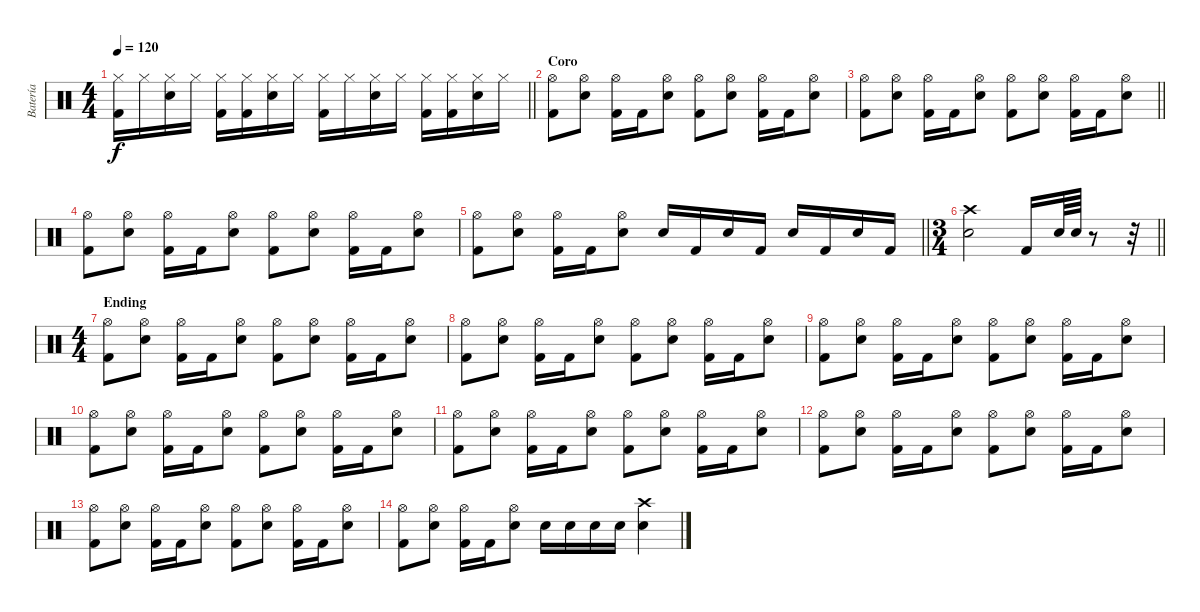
\track ("Batería" "Batería") {instrument percussion}
\staff {score}
\articulation defaults
\ts (4 4)
\tempo 120
\clef neutral
\barLineRight lightlight
\ks c
("Hi-Hat (closed)" "Kick (hit) 2").16{dy f} "Hi-Hat (closed)".16 ("Hi-Hat (closed)" "Snare (hit) 2").16 "Hi-Hat (closed)".16 ("Hi-Hat (closed)" "Kick (hit) 2").16 ("Hi-Hat (closed)" "Kick (hit) 2").16 ("Hi-Hat (closed)" "Snare (hit) 2").16 "Hi-Hat (closed)".16 ("Hi-Hat (closed)" "Kick (hit) 2").16 "Hi-Hat (closed)".16 ("Hi-Hat (closed)" "Snare (hit) 2").16 "Hi-Hat (closed)".16 ("Hi-Hat (closed)" "Kick (hit) 2").16 ("Hi-Hat (closed)" "Kick (hit) 2").16 ("Hi-Hat (closed)" "Snare (hit) 2").16 "Hi-Hat (closed)".16 |
\section ("" "Coro")
("Hi-Hat (open)" "Kick (hit) 2").8 ("Hi-Hat (open)" "Snare (hit) 2").8 ("Hi-Hat (open)" "Kick (hit) 2").16 "Kick (hit) 2".16 ("Hi-Hat (open)" "Snare (hit) 2").8 ("Hi-Hat (open)" "Kick (hit) 2").8 ("Hi-Hat (open)" "Snare (hit) 2").8 ("Hi-Hat (open)" "Kick (hit) 2").16 "Kick (hit) 2".16 ("Hi-Hat (open)" "Snare (hit) 2").8 |
\barLineRight lightlight
("Hi-Hat (open)" "Kick (hit) 2").8 ("Hi-Hat (open)" "Snare (hit) 2").8 ("Hi-Hat (open)" "Kick (hit) 2").16 "Kick (hit) 2".16 ("Hi-Hat (open)" "Snare (hit) 2").8 ("Hi-Hat (open)" "Kick (hit) 2").8 ("Hi-Hat (open)" "Snare (hit) 2").8 ("Hi-Hat (open)" "Kick (hit) 2").16 "Kick (hit) 2".16 ("Hi-Hat (open)" "Snare (hit) 2").8 |
("Hi-Hat (open)" "Kick (hit) 2").8 ("Hi-Hat (open)" "Snare (hit) 2").8 ("Hi-Hat (open)" "Kick (hit) 2").16 "Kick (hit) 2".16 ("Hi-Hat (open)" "Snare (hit) 2").8 ("Hi-Hat (open)" "Kick (hit) 2").8 ("Hi-Hat (open)" "Snare (hit) 2").8 ("Hi-Hat (open)" "Kick (hit) 2").16 "Kick (hit) 2".16 ("Hi-Hat (open)" "Snare (hit) 2").8 |
\barLineRight lightlight
("Hi-Hat (open)" "Kick (hit) 2").8 ("Hi-Hat (open)" "Snare (hit) 2").8 ("Hi-Hat (open)" "Kick (hit) 2").16 "Kick (hit) 2".16 ("Hi-Hat (open)" "Snare (hit) 2").8 "Snare (hit) 2".16 "Kick (hit) 2".16 "Snare (hit) 2".16 "Kick (hit) 2".16 "Snare (hit) 2".16 "Kick (hit) 2".16 "Snare (hit) 2".16 "Kick (hit) 2".16 |
\ts (3 4)
\barLineRight lightlight
("Snare (hit) 2" "Crash high (hit)").2 "Kick (hit) 2".16 "Snare (hit) 2".64 "Snare (hit) 2".64 r.8 r.32 |
\ts (4 4)
\section ("" "Ending")
("Hi-Hat (open)" "Kick (hit) 2").8 ("Hi-Hat (open)" "Snare (hit) 2").8 ("Hi-Hat (open)" "Kick (hit) 2").16 "Kick (hit) 2".16 ("Hi-Hat (open)" "Snare (hit) 2").8 ("Hi-Hat (open)" "Kick (hit) 2").8 ("Hi-Hat (open)" "Snare (hit) 2").8 ("Hi-Hat (open)" "Kick (hit) 2").16 "Kick (hit) 2".16 ("Hi-Hat (open)" "Snare (hit) 2").8 |
("Hi-Hat (open)" "Kick (hit) 2").8 ("Hi-Hat (open)" "Snare (hit) 2").8 ("Hi-Hat (open)" "Kick (hit) 2").16 "Kick (hit) 2".16 ("Hi-Hat (open)" "Snare (hit) 2").8 ("Hi-Hat (open)" "Kick (hit) 2").8 ("Hi-Hat (open)" "Snare (hit) 2").8 ("Hi-Hat (open)" "Kick (hit) 2").16 "Kick (hit) 2".16 ("Hi-Hat (open)" "Snare (hit) 2").8 |
("Hi-Hat (open)" "Kick (hit) 2").8 ("Hi-Hat (open)" "Snare (hit) 2").8 ("Hi-Hat (open)" "Kick (hit) 2").16 "Kick (hit) 2".16 ("Hi-Hat (open)" "Snare (hit) 2").8 ("Hi-Hat (open)" "Kick (hit) 2").8 ("Hi-Hat (open)" "Snare (hit) 2").8 ("Hi-Hat (open)" "Kick (hit) 2").16 "Kick (hit) 2".16 ("Hi-Hat (open)" "Snare (hit) 2").8 |
("Hi-Hat (open)" "Kick (hit) 2").8 ("Hi-Hat (open)" "Snare (hit) 2").8 ("Hi-Hat (open)" "Kick (hit) 2").16 "Kick (hit) 2".16 ("Hi-Hat (open)" "Snare (hit) 2").8 ("Hi-Hat (open)" "Kick (hit) 2").8 ("Hi-Hat (open)" "Snare (hit) 2").8 ("Hi-Hat (open)" "Kick (hit) 2").16 "Kick (hit) 2".16 ("Hi-Hat (open)" "Snare (hit) 2").8 |
("Hi-Hat (open)" "Kick (hit) 2").8 ("Hi-Hat (open)" "Snare (hit) 2").8 ("Hi-Hat (open)" "Kick (hit) 2").16 "Kick (hit) 2".16 ("Hi-Hat (open)" "Snare (hit) 2").8 ("Hi-Hat (open)" "Kick (hit) 2").8 ("Hi-Hat (open)" "Snare (hit) 2").8 ("Hi-Hat (open)" "Kick (hit) 2").16 "Kick (hit) 2".16 ("Hi-Hat (open)" "Snare (hit) 2").8 |
("Hi-Hat (open)" "Kick (hit) 2").8 ("Hi-Hat (open)" "Snare (hit) 2").8 ("Hi-Hat (open)" "Kick (hit) 2").16 "Kick (hit) 2".16 ("Hi-Hat (open)" "Snare (hit) 2").8 ("Hi-Hat (open)" "Kick (hit) 2").8 ("Hi-Hat (open)" "Snare (hit) 2").8 ("Hi-Hat (open)" "Kick (hit) 2").16 "Kick (hit) 2".16 ("Hi-Hat (open)" "Snare (hit) 2").8 |
("Hi-Hat (open)" "Kick (hit) 2").8 ("Hi-Hat (open)" "Snare (hit) 2").8 ("Hi-Hat (open)" "Kick (hit) 2").16 "Kick (hit) 2".16 ("Hi-Hat (open)" "Snare (hit) 2").8 ("Hi-Hat (open)" "Kick (hit) 2").8 ("Hi-Hat (open)" "Snare (hit) 2").8 ("Hi-Hat (open)" "Kick (hit) 2").16 "Kick (hit) 2".16 ("Hi-Hat (open)" "Snare (hit) 2").8 |
("Hi-Hat (open)" "Kick (hit) 2").8 ("Hi-Hat (open)" "Snare (hit) 2").8 ("Hi-Hat (open)" "Kick (hit) 2").16 "Kick (hit) 2".16 ("Hi-Hat (open)" "Snare (hit) 2").8 "Snare (hit) 2".16 "Snare (hit) 2".16 "Snare (hit) 2".16 "Snare (hit) 2".16 ("Snare (hit) 2" "Crash high (hit)").4
